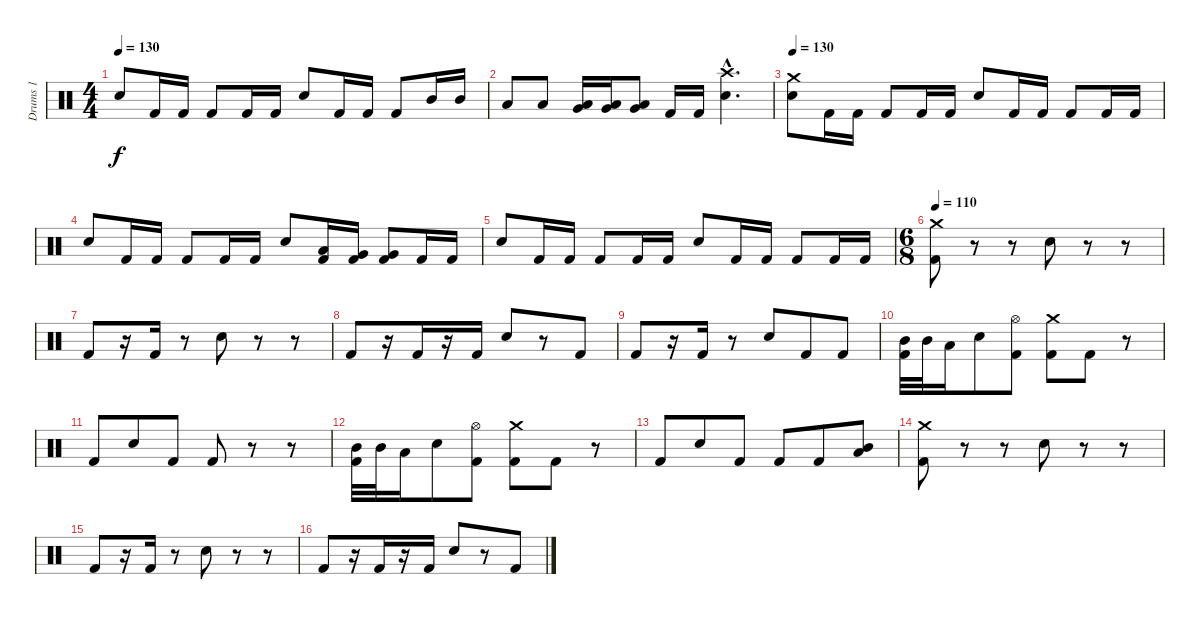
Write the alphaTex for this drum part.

\track ("Drums 1" "Drums 1") {instrument percussion}
\staff {score}
\articulation defaults
\ts (4 4)
\tempo 130
\clef neutral
\ks c "Snare (hit) 2".8{dy f} "Kick (hit) 2".16 "Kick (hit) 2".16 "Kick (hit) 2".8 "Kick (hit) 2".16 "Kick (hit) 2".16 "Snare (hit) 2".8 "Kick (hit) 2".16 "Kick (hit) 2".16 "Kick (hit) 2".8 "Mid Tom (hit)".16 "Mid Tom (hit)".16
|
"Low Tom (hit)".8 "Low Tom (hit)".8 ("Very Low Tom (hit)" "Low Floor Tom (hit)").16 ("Very Low Tom (hit)" "Low Floor Tom (hit)").16 ("Very Low Tom (hit)" "Low Floor Tom (hit)").8 "Kick (hit) 2".16 "Kick (hit) 2".16 ("Crash high (hit)"{hac} "Snare (hit) 2"{hac}).4{d} |
\tempo 130
("Crash medium (hit)" "Snare (hit) 2").8 "Kick (hit) 2".16 "Kick (hit) 2".16 "Kick (hit) 2".8 "Kick (hit) 2".16 "Kick (hit) 2".16 "Snare (hit) 2".8 "Kick (hit) 2".16 "Kick (hit) 2".16 "Kick (hit) 2".8 "Kick (hit) 2".16 "Kick (hit) 2".16 |
"Snare (hit) 2".8 "Kick (hit) 2".16 "Kick (hit) 2".16 "Kick (hit) 2".8 "Kick (hit) 2".16 "Kick (hit) 2".16 "Snare (hit) 2".8 ("Low Tom (hit)" "Kick (hit) 2").16 ("Very Low Tom (hit)" "Kick (hit) 2").16 ("Very Low Tom (hit)" "Kick (hit) 2").8 "Kick (hit) 2".16 "Kick (hit) 2".16 |
"Snare (hit) 2".8 "Kick (hit) 2".16 "Kick (hit) 2".16 "Kick (hit) 2".8 "Kick (hit) 2".16 "Kick (hit) 2".16 "Snare (hit) 2".8 "Kick (hit) 2".16 "Kick (hit) 2".16 "Kick (hit) 2".8 "Kick (hit) 2".16 "Kick (hit) 2".16 |
\ts (6 8)
\tempo 110
("Crash medium (hit)" "Kick (hit) 2").8 r.8 r.8 "Snare (hit) 2".8 r.8 r.8 |
"Kick (hit) 2".8 r.16 "Kick (hit) 2".16 r.8 "Snare (hit) 2".8 r.8 r.8 |
"Kick (hit) 2".8 r.16 "Kick (hit) 2".16 r.16 "Kick (hit) 2".16 "Snare (hit) 2".8 r.8 "Kick (hit) 2".8 |
"Kick (hit) 2".8 r.16 "Kick (hit) 2".16 r.8 "Snare (hit) 2".8 "Kick (hit) 2".8 "Kick (hit) 2".8 |
("Mid Tom (hit)" "Kick (hit) 2").32 "Mid Tom (hit)".32 "Low Tom (hit)".16 "Snare (hit) 2".8 ("Hi-Hat (open)" "Kick (hit) 2").8 ("Crash medium (hit)" "Kick (hit) 2").8 "Kick (hit) 2".8 r.8 |
"Kick (hit) 2".8 "Snare (hit) 2".8 "Kick (hit) 2".8 "Kick (hit) 2".8 r.8 r.8 |
("Mid Tom (hit)" "Kick (hit) 2").32 "Mid Tom (hit)".32 "Low Tom (hit)".16 "Snare (hit) 2".8 ("Hi-Hat (open)" "Kick (hit) 2").8 ("Crash medium (hit)" "Kick (hit) 2").8 "Kick (hit) 2".8 r.8 |
"Kick (hit) 2".8 "Snare (hit) 2".8 "Kick (hit) 2".8 "Kick (hit) 2".8 "Kick (hit) 2".8 ("Mid Tom (hit)" "Low Tom (hit)").8 |
("Crash medium (hit)" "Kick (hit) 2").8 r.8 r.8 "Snare (hit) 2".8 r.8 r.8 |
"Kick (hit) 2".8 r.16 "Kick (hit) 2".16 r.8 "Snare (hit) 2".8 r.8 r.8 |
"Kick (hit) 2".8 r.16 "Kick (hit) 2".16 r.16 "Kick (hit) 2".16 "Snare (hit) 2".8 r.8 "Kick (hit) 2".8
